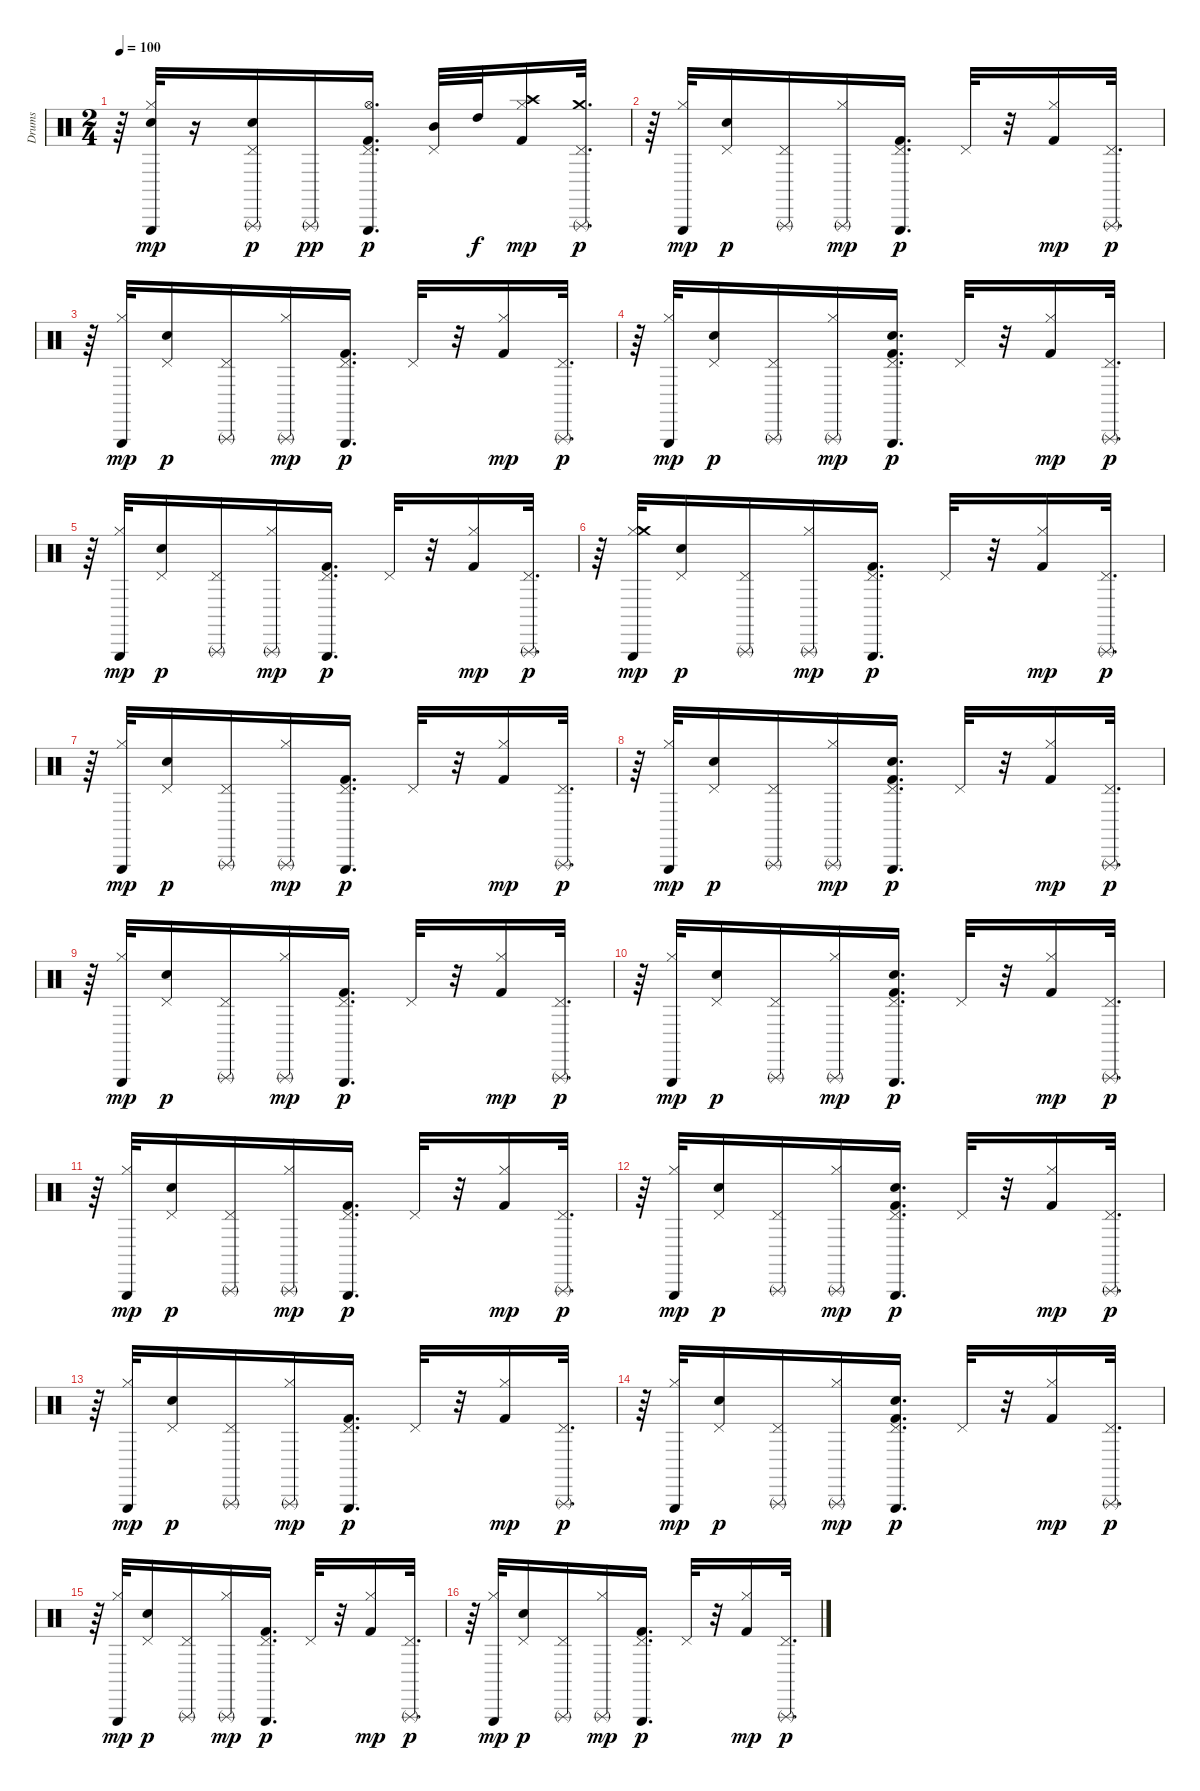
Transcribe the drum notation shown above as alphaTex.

\track ("Drums" "Drums") {instrument percussion}
\staff {score}
\articulation defaults
\ts (2 4)
\tempo 100
\clef neutral
\ks c
r.64{dy p} ("Triangle (hit)" "Hi-Hat (closed)" "Electric Snare (hit)").32{dy mp} r.16 ("Triangle (rnute)" "Pedal Hi-Hat (hit)" "Electric Snare (hit)").16{dy p} "Triangle (rnute)".16{dy pp} ("Triangle (hit)" "Kick (hit) 2" "Pedal Hi-Hat (hit)" "Hi-Hat (open)").16{d dy p} ("Pedal Hi-Hat (hit)" "Mid Tom (hit)").32 "High Tom (hit)".32{dy f} ("Kick (hit) 2" "Hi-Hat (closed)" "Crash high (hit)").16{dy mp} ("Triangle (rnute)" "Pedal Hi-Hat (hit)" "Crash medium (hit)").32{d dy p} |
r.64 ("Triangle (hit)" "Hi-Hat (closed)").32{dy mp} ("Pedal Hi-Hat (hit)" "Electric Snare (hit)").16{dy p} ("Triangle (rnute)" "Pedal Hi-Hat (hit)").16 ("Triangle (rnute)" "Hi-Hat (closed)").16{dy mp} ("Triangle (hit)" "Kick (hit) 2" "Pedal Hi-Hat (hit)").16{d dy p} "Pedal Hi-Hat (hit)".32 r.32 ("Kick (hit) 2" "Hi-Hat (closed)").16{dy mp} ("Triangle (rnute)" "Pedal Hi-Hat (hit)").32{d dy p} |
r.64 ("Triangle (hit)" "Hi-Hat (closed)").32{dy mp} ("Pedal Hi-Hat (hit)" "Electric Snare (hit)").16{dy p} ("Triangle (rnute)" "Pedal Hi-Hat (hit)").16 ("Triangle (rnute)" "Hi-Hat (closed)").16{dy mp} ("Triangle (hit)" "Kick (hit) 2" "Pedal Hi-Hat (hit)").16{d dy p} "Pedal Hi-Hat (hit)".32 r.32 ("Kick (hit) 2" "Hi-Hat (closed)").16{dy mp} ("Triangle (rnute)" "Pedal Hi-Hat (hit)").32{d dy p} |
r.64 ("Triangle (hit)" "Hi-Hat (closed)").32{dy mp} ("Pedal Hi-Hat (hit)" "Electric Snare (hit)").16{dy p} ("Triangle (rnute)" "Pedal Hi-Hat (hit)").16 ("Triangle (rnute)" "Hi-Hat (closed)").16{dy mp} ("Triangle (hit)" "Kick (hit) 2" "Pedal Hi-Hat (hit)" "Electric Snare (hit)").16{d dy p} "Pedal Hi-Hat (hit)".32 r.32 ("Kick (hit) 2" "Hi-Hat (closed)").16{dy mp} ("Triangle (rnute)" "Pedal Hi-Hat (hit)").32{d dy p} |
r.64 ("Triangle (hit)" "Hi-Hat (closed)").32{dy mp} ("Pedal Hi-Hat (hit)" "Electric Snare (hit)").16{dy p} ("Triangle (rnute)" "Pedal Hi-Hat (hit)").16 ("Triangle (rnute)" "Hi-Hat (closed)").16{dy mp} ("Triangle (hit)" "Kick (hit) 2" "Pedal Hi-Hat (hit)").16{d dy p} "Pedal Hi-Hat (hit)".32 r.32 ("Kick (hit) 2" "Hi-Hat (closed)").16{dy mp} ("Triangle (rnute)" "Pedal Hi-Hat (hit)").32{d dy p} |
r.64 ("Triangle (hit)" "Hi-Hat (closed)" "Crash medium (hit)").32{dy mp} ("Pedal Hi-Hat (hit)" "Electric Snare (hit)").16{dy p} ("Triangle (rnute)" "Pedal Hi-Hat (hit)").16 ("Triangle (rnute)" "Hi-Hat (closed)").16{dy mp} ("Triangle (hit)" "Kick (hit) 2" "Pedal Hi-Hat (hit)").16{d dy p} "Pedal Hi-Hat (hit)".32 r.32 ("Kick (hit) 2" "Hi-Hat (closed)").16{dy mp} ("Triangle (rnute)" "Pedal Hi-Hat (hit)").32{d dy p} |
r.64 ("Triangle (hit)" "Hi-Hat (closed)").32{dy mp} ("Pedal Hi-Hat (hit)" "Electric Snare (hit)").16{dy p} ("Triangle (rnute)" "Pedal Hi-Hat (hit)").16 ("Triangle (rnute)" "Hi-Hat (closed)").16{dy mp} ("Triangle (hit)" "Kick (hit) 2" "Pedal Hi-Hat (hit)").16{d dy p} "Pedal Hi-Hat (hit)".32 r.32 ("Kick (hit) 2" "Hi-Hat (closed)").16{dy mp} ("Triangle (rnute)" "Pedal Hi-Hat (hit)").32{d dy p} |
r.64 ("Triangle (hit)" "Hi-Hat (closed)").32{dy mp} ("Pedal Hi-Hat (hit)" "Electric Snare (hit)").16{dy p} ("Triangle (rnute)" "Pedal Hi-Hat (hit)").16 ("Triangle (rnute)" "Hi-Hat (closed)").16{dy mp} ("Triangle (hit)" "Kick (hit) 2" "Pedal Hi-Hat (hit)" "Electric Snare (hit)").16{d dy p} "Pedal Hi-Hat (hit)".32 r.32 ("Kick (hit) 2" "Hi-Hat (closed)").16{dy mp} ("Triangle (rnute)" "Pedal Hi-Hat (hit)").32{d dy p} |
r.64 ("Triangle (hit)" "Hi-Hat (closed)").32{dy mp} ("Pedal Hi-Hat (hit)" "Electric Snare (hit)").16{dy p} ("Triangle (rnute)" "Pedal Hi-Hat (hit)").16 ("Triangle (rnute)" "Hi-Hat (closed)").16{dy mp} ("Triangle (hit)" "Kick (hit) 2" "Pedal Hi-Hat (hit)").16{d dy p} "Pedal Hi-Hat (hit)".32 r.32 ("Kick (hit) 2" "Hi-Hat (closed)").16{dy mp} ("Triangle (rnute)" "Pedal Hi-Hat (hit)").32{d dy p} |
r.64 ("Triangle (hit)" "Hi-Hat (closed)").32{dy mp} ("Pedal Hi-Hat (hit)" "Electric Snare (hit)").16{dy p} ("Triangle (rnute)" "Pedal Hi-Hat (hit)").16 ("Triangle (rnute)" "Hi-Hat (closed)").16{dy mp} ("Triangle (hit)" "Kick (hit) 2" "Pedal Hi-Hat (hit)" "Electric Snare (hit)").16{d dy p} "Pedal Hi-Hat (hit)".32 r.32 ("Kick (hit) 2" "Hi-Hat (closed)").16{dy mp} ("Triangle (rnute)" "Pedal Hi-Hat (hit)").32{d dy p} |
r.64 ("Triangle (hit)" "Hi-Hat (closed)").32{dy mp} ("Pedal Hi-Hat (hit)" "Electric Snare (hit)").16{dy p} ("Triangle (rnute)" "Pedal Hi-Hat (hit)").16 ("Triangle (rnute)" "Hi-Hat (closed)").16{dy mp} ("Triangle (hit)" "Kick (hit) 2" "Pedal Hi-Hat (hit)").16{d dy p} "Pedal Hi-Hat (hit)".32 r.32 ("Kick (hit) 2" "Hi-Hat (closed)").16{dy mp} ("Triangle (rnute)" "Pedal Hi-Hat (hit)").32{d dy p} |
r.64 ("Triangle (hit)" "Hi-Hat (closed)").32{dy mp} ("Pedal Hi-Hat (hit)" "Electric Snare (hit)").16{dy p} ("Triangle (rnute)" "Pedal Hi-Hat (hit)").16 ("Triangle (rnute)" "Hi-Hat (closed)").16{dy mp} ("Triangle (hit)" "Kick (hit) 2" "Pedal Hi-Hat (hit)" "Electric Snare (hit)").16{d dy p} "Pedal Hi-Hat (hit)".32 r.32 ("Kick (hit) 2" "Hi-Hat (closed)").16{dy mp} ("Triangle (rnute)" "Pedal Hi-Hat (hit)").32{d dy p} |
r.64 ("Triangle (hit)" "Hi-Hat (closed)").32{dy mp} ("Pedal Hi-Hat (hit)" "Electric Snare (hit)").16{dy p} ("Triangle (rnute)" "Pedal Hi-Hat (hit)").16 ("Triangle (rnute)" "Hi-Hat (closed)").16{dy mp} ("Triangle (hit)" "Kick (hit) 2" "Pedal Hi-Hat (hit)").16{d dy p} "Pedal Hi-Hat (hit)".32 r.32 ("Kick (hit) 2" "Hi-Hat (closed)").16{dy mp} ("Triangle (rnute)" "Pedal Hi-Hat (hit)").32{d dy p} |
r.64 ("Triangle (hit)" "Hi-Hat (closed)").32{dy mp} ("Pedal Hi-Hat (hit)" "Electric Snare (hit)").16{dy p} ("Triangle (rnute)" "Pedal Hi-Hat (hit)").16 ("Triangle (rnute)" "Hi-Hat (closed)").16{dy mp} ("Triangle (hit)" "Kick (hit) 2" "Pedal Hi-Hat (hit)" "Electric Snare (hit)").16{d dy p} "Pedal Hi-Hat (hit)".32 r.32 ("Kick (hit) 2" "Hi-Hat (closed)").16{dy mp} ("Triangle (rnute)" "Pedal Hi-Hat (hit)").32{d dy p} |
r.64 ("Triangle (hit)" "Hi-Hat (closed)").32{dy mp} ("Pedal Hi-Hat (hit)" "Electric Snare (hit)").16{dy p} ("Triangle (rnute)" "Pedal Hi-Hat (hit)").16 ("Triangle (rnute)" "Hi-Hat (closed)").16{dy mp} ("Triangle (hit)" "Kick (hit) 2" "Pedal Hi-Hat (hit)").16{d dy p} "Pedal Hi-Hat (hit)".32 r.32 ("Kick (hit) 2" "Hi-Hat (closed)").16{dy mp} ("Triangle (rnute)" "Pedal Hi-Hat (hit)").32{d dy p} |
r.64 ("Triangle (hit)" "Hi-Hat (closed)").32{dy mp} ("Pedal Hi-Hat (hit)" "Electric Snare (hit)").16{dy p} ("Triangle (rnute)" "Pedal Hi-Hat (hit)").16 ("Triangle (rnute)" "Hi-Hat (closed)").16{dy mp} ("Triangle (hit)" "Kick (hit) 2" "Pedal Hi-Hat (hit)").16{d dy p} "Pedal Hi-Hat (hit)".32 r.32 ("Kick (hit) 2" "Hi-Hat (closed)").16{dy mp} ("Triangle (rnute)" "Pedal Hi-Hat (hit)").32{d dy p}
